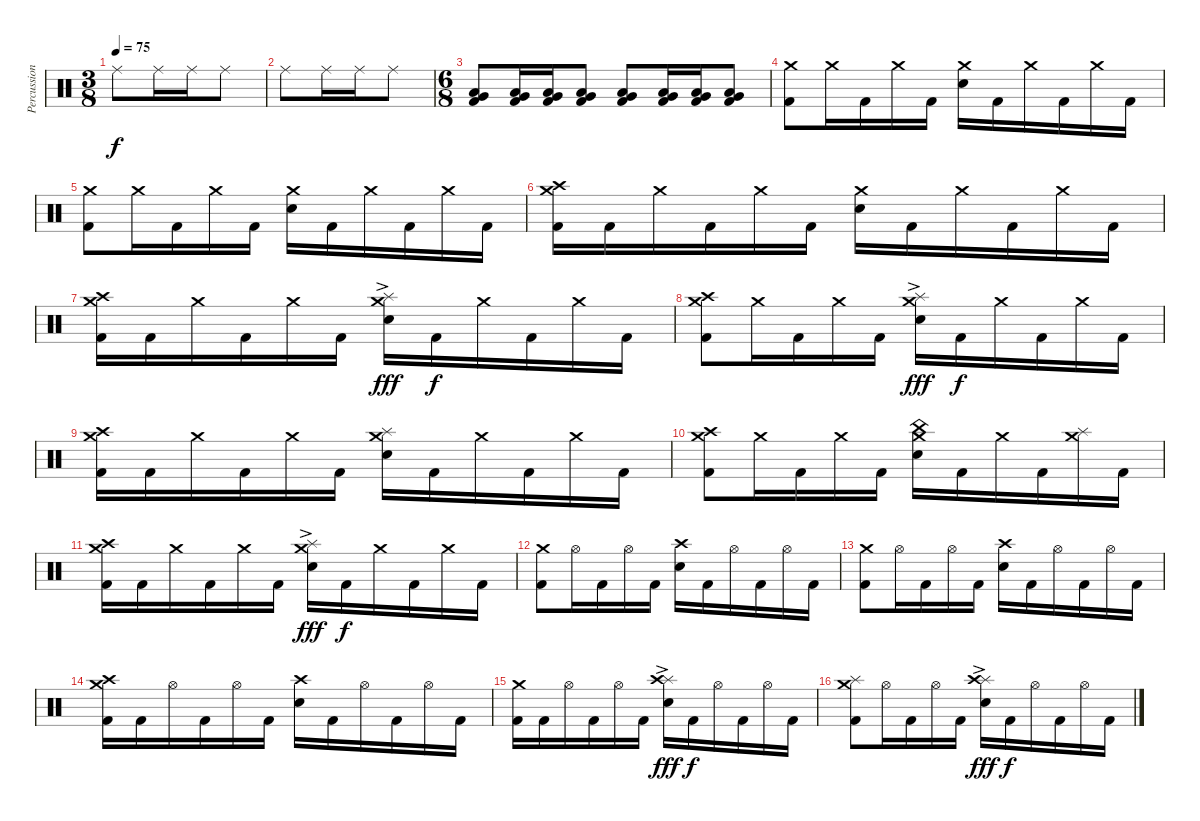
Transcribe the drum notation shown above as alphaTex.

\track ("Percussions" "Percussion") {instrument percussion}
\staff {score}
\articulation defaults
\ts (3 8)
\tempo 75
\clef neutral
\ks c "Ride (middle)".8{dy f} "Ride (middle)".16 "Ride (middle)".16 "Ride (middle)".8
|
"Ride (middle)".8 "Ride (middle)".16 "Ride (middle)".16 "Ride (middle)".8 |
\ts (6 8)
("Low Tom (hit)" "Very Low Tom (hit)" "Kick (hit) 2").8 ("Low Tom (hit)" "Very Low Tom (hit)" "Kick (hit) 2").16 ("Low Tom (hit)" "Very Low Tom (hit)" "Kick (hit) 2").16 ("Low Tom (hit)" "Very Low Tom (hit)" "Kick (hit) 2").8 ("Low Tom (hit)" "Very Low Tom (hit)" "Kick (hit) 2").8 ("Low Tom (hit)" "Very Low Tom (hit)" "Kick (hit) 2").16 ("Low Tom (hit)" "Very Low Tom (hit)" "Kick (hit) 2").16 ("Low Tom (hit)" "Very Low Tom (hit)" "Kick (hit) 2").8 |
("Crash medium (hit)" "Kick (hit) 2").8 "Crash medium (hit)".16 "Kick (hit) 2".16 "Crash medium (hit)".16 "Kick (hit) 2".16 ("Crash medium (hit)" "Electric Snare (hit)").16 "Kick (hit) 2".16 "Crash medium (hit)".16 "Kick (hit) 2".16 "Crash medium (hit)".16 "Kick (hit) 2".16 |
("Crash medium (hit)" "Kick (hit) 2").8 "Crash medium (hit)".16 "Kick (hit) 2".16 "Crash medium (hit)".16 "Kick (hit) 2".16 ("Crash medium (hit)" "Electric Snare (hit)").16 "Kick (hit) 2".16 "Crash medium (hit)".16 "Kick (hit) 2".16 "Crash medium (hit)".16 "Kick (hit) 2".16 |
("Crash high (hit)" "Crash medium (hit)" "Kick (hit) 2").16 "Kick (hit) 2".16 "Crash medium (hit)".16 "Kick (hit) 2".16 "Crash medium (hit)".16 "Kick (hit) 2".16 ("Crash medium (hit)" "Electric Snare (hit)").16 "Kick (hit) 2".16 "Crash medium (hit)".16 "Kick (hit) 2".16 "Crash medium (hit)".16 "Kick (hit) 2".16 |
("Crash high (hit)" "Crash medium (hit)" "Kick (hit) 2").16 "Kick (hit) 2".16 "Crash medium (hit)".16 "Kick (hit) 2".16 "Crash medium (hit)".16 "Kick (hit) 2".16 ("Splash (hit)"{ac} "Crash medium (hit)" "Electric Snare (hit)").16{dy fff} "Kick (hit) 2".16{dy f} "Crash medium (hit)".16 "Kick (hit) 2".16 "Crash medium (hit)".16 "Kick (hit) 2".16 |
("Crash high (hit)" "Crash medium (hit)" "Kick (hit) 2").8 "Crash medium (hit)".16 "Kick (hit) 2".16 "Crash medium (hit)".16 "Kick (hit) 2".16 ("Splash (hit)"{ac} "Crash medium (hit)" "Electric Snare (hit)").16{dy fff} "Kick (hit) 2".16{dy f} "Crash medium (hit)".16 "Kick (hit) 2".16 "Crash medium (hit)".16 "Kick (hit) 2".16 |
("Crash high (hit)" "Crash medium (hit)" "Kick (hit) 2").16 "Kick (hit) 2".16 "Crash medium (hit)".16 "Kick (hit) 2".16 "Crash medium (hit)".16 "Kick (hit) 2".16 ("Splash (hit)" "Crash medium (hit)" "Electric Snare (hit)").16 "Kick (hit) 2".16 "Crash medium (hit)".16 "Kick (hit) 2".16 "Crash medium (hit)".16 "Kick (hit) 2".16 |
("Crash high (hit)" "Crash medium (hit)" "Kick (hit) 2").8 "Crash medium (hit)".16 "Kick (hit) 2".16 "Crash medium (hit)".16 "Kick (hit) 2".16 ("China (hit)" "Crash medium (hit)" "Electric Snare (hit)").16 "Kick (hit) 2".16 "Crash medium (hit)".16 "Kick (hit) 2".16 ("Splash (hit)" "Crash medium (hit)").16 "Kick (hit) 2".16 |
("Crash high (hit)" "Crash medium (hit)" "Kick (hit) 2").16 "Kick (hit) 2".16 "Crash medium (hit)".16 "Kick (hit) 2".16 "Crash medium (hit)".16 "Kick (hit) 2".16 ("Splash (hit)"{ac} "Crash medium (hit)" "Electric Snare (hit)").16{dy fff} "Kick (hit) 2".16{dy f} "Crash medium (hit)".16 "Kick (hit) 2".16 "Crash medium (hit)".16 "Kick (hit) 2".16 |
("Crash medium (hit)" "Kick (hit) 2").8 "Hi-Hat (open)".16 "Kick (hit) 2".16 "Hi-Hat (open)".16 "Kick (hit) 2".16 ("Crash high (hit)" "Electric Snare (hit)").16 "Kick (hit) 2".16 "Hi-Hat (open)".16 "Kick (hit) 2".16 "Hi-Hat (open)".16 "Kick (hit) 2".16 |
("Crash medium (hit)" "Kick (hit) 2").8 "Hi-Hat (open)".16 "Kick (hit) 2".16 "Hi-Hat (open)".16 "Kick (hit) 2".16 ("Crash high (hit)" "Electric Snare (hit)").16 "Kick (hit) 2".16 "Hi-Hat (open)".16 "Kick (hit) 2".16 "Hi-Hat (open)".16 "Kick (hit) 2".16 |
("Crash high (hit)" "Crash medium (hit)" "Kick (hit) 2").16 "Kick (hit) 2".16 "Hi-Hat (open)".16 "Kick (hit) 2".16 "Hi-Hat (open)".16 "Kick (hit) 2".16 ("Crash high (hit)" "Electric Snare (hit)").16 "Kick (hit) 2".16 "Hi-Hat (open)".16 "Kick (hit) 2".16 "Hi-Hat (open)".16 "Kick (hit) 2".16 |
("Crash medium (hit)" "Kick (hit) 2").16 "Kick (hit) 2".16 "Hi-Hat (open)".16 "Kick (hit) 2".16 "Hi-Hat (open)".16 "Kick (hit) 2".16 ("Splash (hit)"{ac} "Crash high (hit)" "Electric Snare (hit)").16{dy fff} "Kick (hit) 2".16{dy f} "Hi-Hat (open)".16 "Kick (hit) 2".16 "Hi-Hat (open)".16 "Kick (hit) 2".16 |
("Splash (hit)" "Crash medium (hit)" "Kick (hit) 2").8 "Hi-Hat (open)".16 "Kick (hit) 2".16 "Hi-Hat (open)".16 "Kick (hit) 2".16 ("Splash (hit)"{ac} "Crash high (hit)" "Electric Snare (hit)").16{dy fff} "Kick (hit) 2".16{dy f} "Hi-Hat (open)".16 "Kick (hit) 2".16 "Hi-Hat (open)".16 "Kick (hit) 2".16
